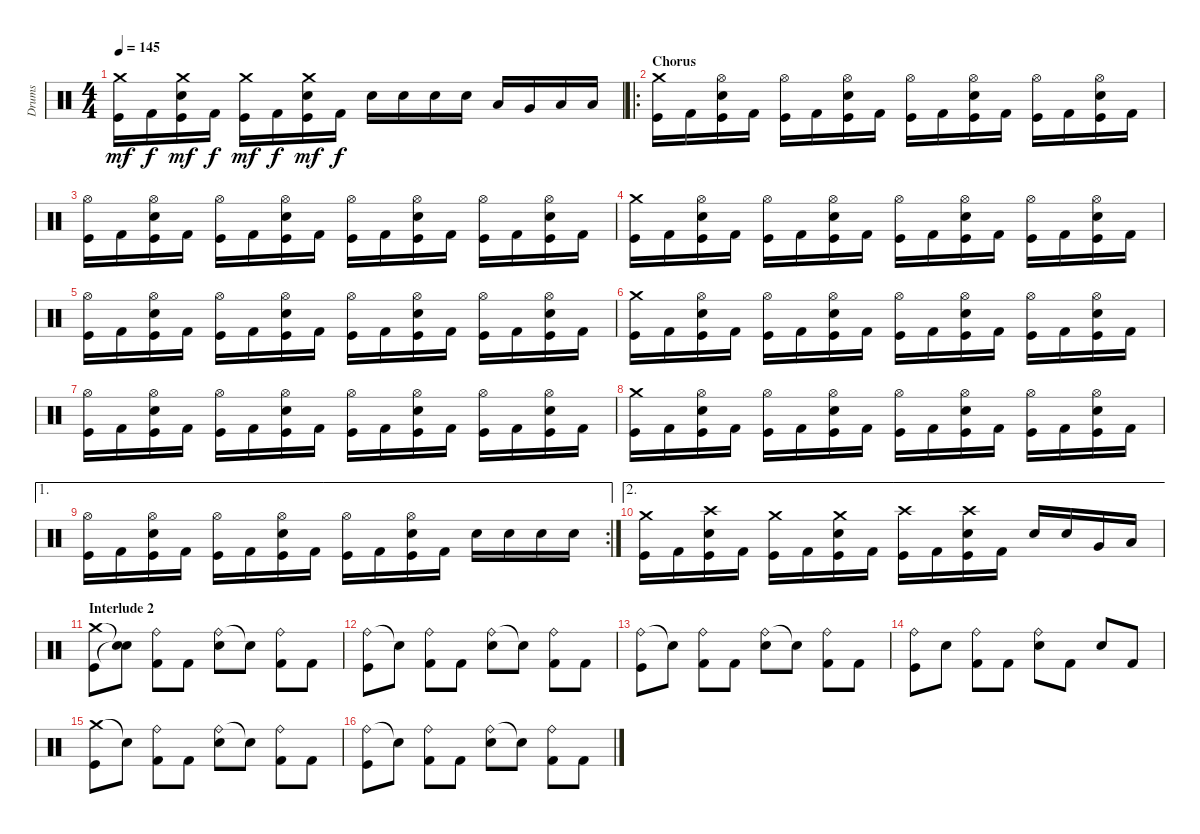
\track ("Drums" "Drums") {instrument percussion}
\staff {score}
\articulation defaults
\ts (4 4)
\tempo 145
\clef neutral
\ks c
("Crash medium (hit)" "Kick (hit)").16{dy mf} "Kick (hit) 2".16{dy f} ("Crash medium (hit)" "Electric Snare (hit)" "Kick (hit)").16{dy mf} "Kick (hit) 2".16{dy f} ("Crash medium (hit)" "Kick (hit)").16{dy mf} "Kick (hit) 2".16{dy f} ("Crash medium (hit)" "Electric Snare (hit)" "Kick (hit)").16{dy mf} "Kick (hit) 2".16{dy f} "Electric Snare (hit)".16 "Electric Snare (hit)".16 "Electric Snare (hit)".16 "Electric Snare (hit)".16 "Low Tom (hit)".16 "Very Low Tom (hit)".16 "Low Floor Tom (hit)".16 "Low Floor Tom (hit)".16 |
\ro
\section ("" "Chorus")
("Crash medium (hit)" "Kick (hit)").16 "Kick (hit) 2".16 ("Hi-Hat (open)" "Electric Snare (hit)" "Kick (hit)").16 "Kick (hit) 2".16 ("Hi-Hat (open)" "Kick (hit)").16 "Kick (hit) 2".16 ("Hi-Hat (open)" "Electric Snare (hit)" "Kick (hit)").16 "Kick (hit) 2".16 ("Hi-Hat (open)" "Kick (hit)").16 "Kick (hit) 2".16 ("Hi-Hat (open)" "Electric Snare (hit)" "Kick (hit)").16 "Kick (hit) 2".16 ("Hi-Hat (open)" "Kick (hit)").16 "Kick (hit) 2".16 ("Hi-Hat (open)" "Electric Snare (hit)" "Kick (hit)").16 "Kick (hit) 2".16 |
("Hi-Hat (open)" "Kick (hit)").16 "Kick (hit) 2".16 ("Hi-Hat (open)" "Electric Snare (hit)" "Kick (hit)").16 "Kick (hit) 2".16 ("Hi-Hat (open)" "Kick (hit)").16 "Kick (hit) 2".16 ("Hi-Hat (open)" "Electric Snare (hit)" "Kick (hit)").16 "Kick (hit) 2".16 ("Hi-Hat (open)" "Kick (hit)").16 "Kick (hit) 2".16 ("Hi-Hat (open)" "Electric Snare (hit)" "Kick (hit)").16 "Kick (hit) 2".16 ("Hi-Hat (open)" "Kick (hit)").16 "Kick (hit) 2".16 ("Hi-Hat (open)" "Electric Snare (hit)" "Kick (hit)").16 "Kick (hit) 2".16 |
("Crash medium (hit)" "Kick (hit)").16 "Kick (hit) 2".16 ("Hi-Hat (open)" "Electric Snare (hit)" "Kick (hit)").16 "Kick (hit) 2".16 ("Hi-Hat (open)" "Kick (hit)").16 "Kick (hit) 2".16 ("Hi-Hat (open)" "Electric Snare (hit)" "Kick (hit)").16 "Kick (hit) 2".16 ("Hi-Hat (open)" "Kick (hit)").16 "Kick (hit) 2".16 ("Hi-Hat (open)" "Electric Snare (hit)" "Kick (hit)").16 "Kick (hit) 2".16 ("Hi-Hat (open)" "Kick (hit)").16 "Kick (hit) 2".16 ("Hi-Hat (open)" "Electric Snare (hit)" "Kick (hit)").16 "Kick (hit) 2".16 |
("Hi-Hat (open)" "Kick (hit)").16 "Kick (hit) 2".16 ("Hi-Hat (open)" "Electric Snare (hit)" "Kick (hit)").16 "Kick (hit) 2".16 ("Hi-Hat (open)" "Kick (hit)").16 "Kick (hit) 2".16 ("Hi-Hat (open)" "Electric Snare (hit)" "Kick (hit)").16 "Kick (hit) 2".16 ("Hi-Hat (open)" "Kick (hit)").16 "Kick (hit) 2".16 ("Hi-Hat (open)" "Electric Snare (hit)" "Kick (hit)").16 "Kick (hit) 2".16 ("Hi-Hat (open)" "Kick (hit)").16 "Kick (hit) 2".16 ("Hi-Hat (open)" "Electric Snare (hit)" "Kick (hit)").16 "Kick (hit) 2".16 |
("Crash medium (hit)" "Kick (hit)").16 "Kick (hit) 2".16 ("Hi-Hat (open)" "Electric Snare (hit)" "Kick (hit)").16 "Kick (hit) 2".16 ("Hi-Hat (open)" "Kick (hit)").16 "Kick (hit) 2".16 ("Hi-Hat (open)" "Electric Snare (hit)" "Kick (hit)").16 "Kick (hit) 2".16 ("Hi-Hat (open)" "Kick (hit)").16 "Kick (hit) 2".16 ("Hi-Hat (open)" "Electric Snare (hit)" "Kick (hit)").16 "Kick (hit) 2".16 ("Hi-Hat (open)" "Kick (hit)").16 "Kick (hit) 2".16 ("Hi-Hat (open)" "Electric Snare (hit)" "Kick (hit)").16 "Kick (hit) 2".16 |
("Hi-Hat (open)" "Kick (hit)").16 "Kick (hit) 2".16 ("Hi-Hat (open)" "Electric Snare (hit)" "Kick (hit)").16 "Kick (hit) 2".16 ("Hi-Hat (open)" "Kick (hit)").16 "Kick (hit) 2".16 ("Hi-Hat (open)" "Electric Snare (hit)" "Kick (hit)").16 "Kick (hit) 2".16 ("Hi-Hat (open)" "Kick (hit)").16 "Kick (hit) 2".16 ("Hi-Hat (open)" "Electric Snare (hit)" "Kick (hit)").16 "Kick (hit) 2".16 ("Hi-Hat (open)" "Kick (hit)").16 "Kick (hit) 2".16 ("Hi-Hat (open)" "Electric Snare (hit)" "Kick (hit)").16 "Kick (hit) 2".16 |
("Crash medium (hit)" "Kick (hit)").16 "Kick (hit) 2".16 ("Hi-Hat (open)" "Electric Snare (hit)" "Kick (hit)").16 "Kick (hit) 2".16 ("Hi-Hat (open)" "Kick (hit)").16 "Kick (hit) 2".16 ("Hi-Hat (open)" "Electric Snare (hit)" "Kick (hit)").16 "Kick (hit) 2".16 ("Hi-Hat (open)" "Kick (hit)").16 "Kick (hit) 2".16 ("Hi-Hat (open)" "Electric Snare (hit)" "Kick (hit)").16 "Kick (hit) 2".16 ("Hi-Hat (open)" "Kick (hit)").16 "Kick (hit) 2".16 ("Hi-Hat (open)" "Electric Snare (hit)" "Kick (hit)").16 "Kick (hit) 2".16 |
\ae 1
\rc 2
("Hi-Hat (open)" "Kick (hit)").16 "Kick (hit) 2".16 ("Hi-Hat (open)" "Electric Snare (hit)" "Kick (hit)").16 "Kick (hit) 2".16 ("Hi-Hat (open)" "Kick (hit)").16 "Kick (hit) 2".16 ("Hi-Hat (open)" "Electric Snare (hit)" "Kick (hit)").16 "Kick (hit) 2".16 ("Hi-Hat (open)" "Kick (hit)").16 "Kick (hit) 2".16 ("Hi-Hat (open)" "Electric Snare (hit)" "Kick (hit)").16 "Kick (hit) 2".16 "Electric Snare (hit)".16 "Electric Snare (hit)".16 "Electric Snare (hit)".16 "Electric Snare (hit)".16 |
\ae 2
("Crash medium (hit)" "Kick (hit)").16 "Kick (hit) 2".16 ("Crash high (hit)" "Electric Snare (hit)" "Kick (hit)").16 "Kick (hit) 2".16 ("Crash medium (hit)" "Kick (hit)").16 "Kick (hit) 2".16 ("Crash medium (hit)" "Electric Snare (hit)" "Kick (hit)").16 "Kick (hit) 2".16 ("Crash high (hit)" "Kick (hit)").16 "Kick (hit) 2".16 ("Crash high (hit)" "Electric Snare (hit)" "Kick (hit)").16 "Kick (hit) 2".16 "Electric Snare (hit)".16 "Electric Snare (hit)".16 "Very Low Tom (hit)".16 "Low Floor Tom (hit)".16 |
\section ("" "Interlude 2")
("Crash medium (hit)" "Kick (hit)").8 ("Snare (hit)"{t} "Snare (hit)"{t}).8 ("Ride (bell)" "Kick (hit) 2").8 "Kick (hit) 2".8 ("Ride (bell)" "Electric Snare (hit)").8 "Snare (hit)"{t}.8 ("Ride (bell)" "Kick (hit) 2").8 "Kick (hit) 2".8 |
("Ride (bell)" "Kick (hit)").8 "Snare (hit)"{t}.8 ("Ride (bell)" "Kick (hit) 2").8 "Kick (hit) 2".8 ("Ride (bell)" "Electric Snare (hit)").8 "Snare (hit)"{t}.8 ("Ride (bell)" "Kick (hit) 2").8 "Kick (hit) 2".8 |
("Ride (bell)" "Kick (hit)").8 "Snare (hit)"{t}.8 ("Ride (bell)" "Kick (hit) 2").8 "Kick (hit) 2".8 ("Ride (bell)" "Electric Snare (hit)").8 "Snare (hit)"{t}.8 ("Ride (bell)" "Kick (hit) 2").8 "Kick (hit) 2".8 |
("Ride (bell)" "Kick (hit)").8 "Electric Snare (hit)".8 ("Ride (bell)" "Kick (hit) 2").8 "Kick (hit) 2".8 ("Ride (bell)" "Electric Snare (hit)").8 "Kick (hit) 2".8 "Electric Snare (hit)".8 "Kick (hit) 2".8 |
("Crash medium (hit)" "Kick (hit)").8 "Snare (hit)"{t}.8 ("Ride (bell)" "Kick (hit) 2").8 "Kick (hit) 2".8 ("Ride (bell)" "Electric Snare (hit)").8 "Snare (hit)"{t}.8 ("Ride (bell)" "Kick (hit) 2").8 "Kick (hit) 2".8 |
("Ride (bell)" "Kick (hit)").8 "Snare (hit)"{t}.8 ("Ride (bell)" "Kick (hit) 2").8 "Kick (hit) 2".8 ("Ride (bell)" "Electric Snare (hit)").8 "Snare (hit)"{t}.8 ("Ride (bell)" "Kick (hit) 2").8 "Kick (hit) 2".8
